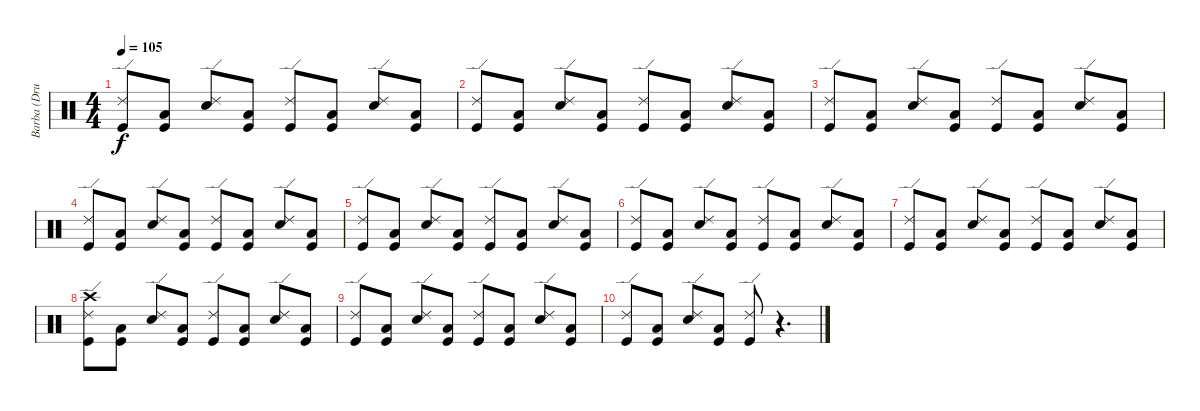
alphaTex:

\track ("Barba (Drums)" "Barba (Dru") {instrument percussion}
\staff {score}
\articulation defaults
\ts (4 4)
\tempo 105
\clef neutral
\ks c
("Ride (edge) 2" "Kick (hit)").8{dy f} ("Low Floor Tom (hit)" "Kick (hit)").8 ("Ride (edge) 2" "Electric Snare (hit)").8 ("Low Floor Tom (hit)" "Kick (hit)").8 ("Ride (edge) 2" "Kick (hit)").8 ("Low Floor Tom (hit)" "Kick (hit)").8 ("Ride (edge) 2" "Electric Snare (hit)").8 ("Low Floor Tom (hit)" "Kick (hit)").8 |
("Ride (edge) 2" "Kick (hit)").8{volume 13} ("Low Floor Tom (hit)" "Kick (hit)").8 ("Ride (edge) 2" "Electric Snare (hit)").8 ("Low Floor Tom (hit)" "Kick (hit)").8 ("Ride (edge) 2" "Kick (hit)").8 ("Low Floor Tom (hit)" "Kick (hit)").8 ("Ride (edge) 2" "Electric Snare (hit)").8 ("Low Floor Tom (hit)" "Kick (hit)").8 |
("Ride (edge) 2" "Kick (hit)").8 ("Low Floor Tom (hit)" "Kick (hit)").8 ("Ride (edge) 2" "Electric Snare (hit)").8 ("Low Floor Tom (hit)" "Kick (hit)").8 ("Ride (edge) 2" "Kick (hit)").8 ("Low Floor Tom (hit)" "Kick (hit)").8 ("Ride (edge) 2" "Electric Snare (hit)").8 ("Low Floor Tom (hit)" "Kick (hit)").8 |
("Ride (edge) 2" "Kick (hit)").8{volume 13} ("Low Floor Tom (hit)" "Kick (hit)").8 ("Ride (edge) 2" "Electric Snare (hit)").8 ("Low Floor Tom (hit)" "Kick (hit)").8 ("Ride (edge) 2" "Kick (hit)").8 ("Low Floor Tom (hit)" "Kick (hit)").8 ("Ride (edge) 2" "Electric Snare (hit)").8 ("Low Floor Tom (hit)" "Kick (hit)").8 |
("Ride (edge) 2" "Kick (hit)").8 ("Low Floor Tom (hit)" "Kick (hit)").8 ("Ride (edge) 2" "Electric Snare (hit)").8 ("Low Floor Tom (hit)" "Kick (hit)").8 ("Ride (edge) 2" "Kick (hit)").8 ("Low Floor Tom (hit)" "Kick (hit)").8 ("Ride (edge) 2" "Electric Snare (hit)").8 ("Low Floor Tom (hit)" "Kick (hit)").8 |
("Ride (edge) 2" "Kick (hit)").8{volume 13} ("Low Floor Tom (hit)" "Kick (hit)").8 ("Ride (edge) 2" "Electric Snare (hit)").8 ("Low Floor Tom (hit)" "Kick (hit)").8 ("Ride (edge) 2" "Kick (hit)").8 ("Low Floor Tom (hit)" "Kick (hit)").8 ("Ride (edge) 2" "Electric Snare (hit)").8 ("Low Floor Tom (hit)" "Kick (hit)").8 |
("Ride (edge) 2" "Kick (hit)").8 ("Low Floor Tom (hit)" "Kick (hit)").8 ("Ride (edge) 2" "Electric Snare (hit)").8 ("Low Floor Tom (hit)" "Kick (hit)").8 ("Ride (edge) 2" "Kick (hit)").8 ("Low Floor Tom (hit)" "Kick (hit)").8 ("Ride (edge) 2" "Electric Snare (hit)").8 ("Low Floor Tom (hit)" "Kick (hit)").8 |
("Ride (edge) 2" "Kick (hit)" "Crash high (hit)").8{volume 13} ("Low Floor Tom (hit)" "Kick (hit)").8 ("Ride (edge) 2" "Electric Snare (hit)").8 ("Low Floor Tom (hit)" "Kick (hit)").8 ("Ride (edge) 2" "Kick (hit)").8 ("Low Floor Tom (hit)" "Kick (hit)").8 ("Ride (edge) 2" "Electric Snare (hit)").8 ("Low Floor Tom (hit)" "Kick (hit)").8 |
("Ride (edge) 2" "Kick (hit)").8 ("Low Floor Tom (hit)" "Kick (hit)").8 ("Ride (edge) 2" "Electric Snare (hit)").8 ("Low Floor Tom (hit)" "Kick (hit)").8 ("Ride (edge) 2" "Kick (hit)").8 ("Low Floor Tom (hit)" "Kick (hit)").8 ("Ride (edge) 2" "Electric Snare (hit)").8 ("Low Floor Tom (hit)" "Kick (hit)").8 |
("Ride (edge) 2" "Kick (hit)").8{volume 13} ("Low Floor Tom (hit)" "Kick (hit)").8 ("Ride (edge) 2" "Electric Snare (hit)").8 ("Low Floor Tom (hit)" "Kick (hit)").8 ("Ride (edge) 2" "Kick (hit)").8 r.4{d}
